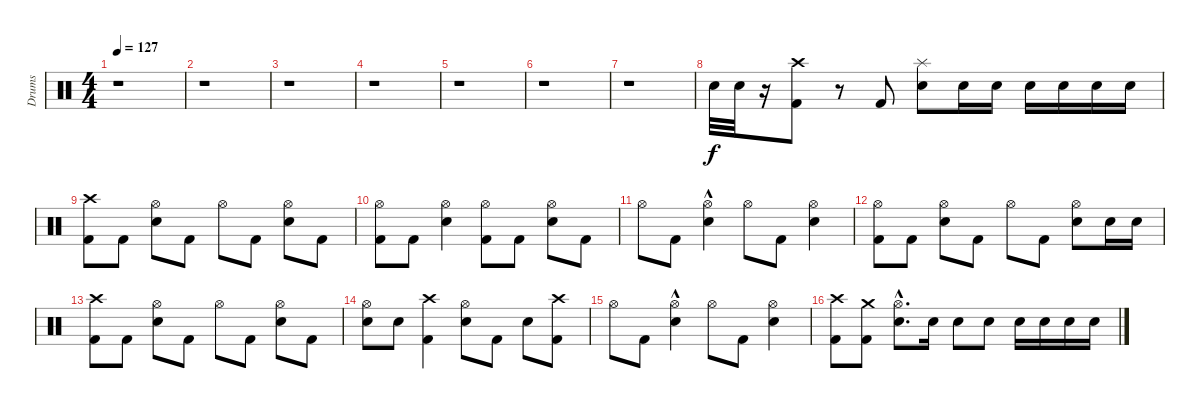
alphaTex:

\track ("Drums" "Drums") {instrument percussion}
\staff {score}
\articulation defaults
\ts (4 4)
\tempo 127
\clef neutral
\ks c
r.1{dy f} |
r.1 |
r.1 |
r.1 |
r.1 |
r.1 |
r.1 |
"Electric Snare (hit)".32 "Electric Snare (hit)".32 r.16 ("Crash high (hit)" "Kick (hit) 2").8 r.8 "Kick (hit) 2".8 ("Electric Snare (hit)" "Splash (hit)").8 "Electric Snare (hit)".16 "Electric Snare (hit)".16 "Electric Snare (hit)".16 "Electric Snare (hit)".16 "Electric Snare (hit)".16 "Electric Snare (hit)".16 |
("Kick (hit) 2" "Crash high (hit)").8 "Kick (hit) 2".8 ("Electric Snare (hit)" "Hi-Hat (open)").8 "Kick (hit) 2".8 "Hi-Hat (open)".8 "Kick (hit) 2".8 ("Electric Snare (hit)" "Hi-Hat (open)").8 "Kick (hit) 2".8 |
("Kick (hit) 2" "Hi-Hat (open)").8 "Kick (hit) 2".8 ("Hi-Hat (open)" "Electric Snare (hit)").4 ("Kick (hit) 2" "Hi-Hat (open)").8 "Kick (hit) 2".8 ("Electric Snare (hit)" "Hi-Hat (open)").8 "Kick (hit) 2".8 |
"Hi-Hat (open)".8 "Kick (hit) 2".8 ("Hi-Hat (open)" "Electric Snare (hit)"{hac}).4 "Hi-Hat (open)".8 "Kick (hit) 2".8 ("Hi-Hat (open)" "Electric Snare (hit)").4 |
("Kick (hit) 2" "Hi-Hat (open)").8 "Kick (hit) 2".8 ("Electric Snare (hit)" "Hi-Hat (open)").8 "Kick (hit) 2".8 "Hi-Hat (open)".8 "Kick (hit) 2".8 ("Electric Snare (hit)" "Hi-Hat (open)").8 "Electric Snare (hit)".16 "Electric Snare (hit)".16 |
("Crash high (hit)" "Kick (hit) 2").8 "Kick (hit) 2".8 ("Electric Snare (hit)" "Hi-Hat (open)").8 "Kick (hit) 2".8 "Hi-Hat (open)".8 "Kick (hit) 2".8 ("Electric Snare (hit)" "Hi-Hat (open)").8 "Kick (hit) 2".8 |
("Electric Snare (hit)" "Hi-Hat (open)").8 "Electric Snare (hit)".8 ("Crash high (hit)" "Kick (hit) 2").4 ("Electric Snare (hit)" "Hi-Hat (open)").8 "Kick (hit) 2".8 "Electric Snare (hit)".8 ("Crash high (hit)" "Kick (hit) 2").8 |
"Hi-Hat (open)".8 "Kick (hit) 2".8 ("Hi-Hat (open)" "Electric Snare (hit)"{hac}).4 "Hi-Hat (open)".8 "Kick (hit) 2".8 ("Electric Snare (hit)" "Hi-Hat (open)").4 |
("Crash high (hit)" "Kick (hit) 2").8 ("Crash medium (hit)" "Kick (hit) 2").8 ("Electric Snare (hit)"{hac} "Hi-Hat (open)"{hac}).8{d} "Electric Snare (hit)".16 "Electric Snare (hit)".8 "Electric Snare (hit)".8 "Electric Snare (hit)".16 "Electric Snare (hit)".16 "Electric Snare (hit)".16 "Electric Snare (hit)".16
